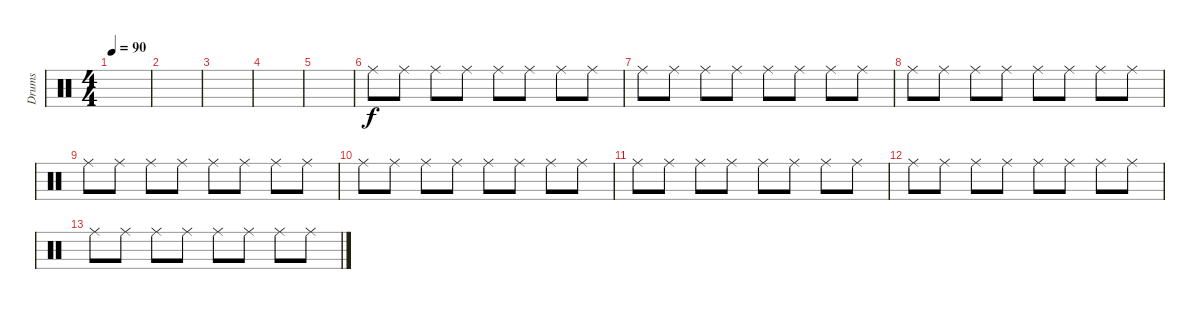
\track ("Drums" "Drums") {instrument percussion}
\staff {score}
\articulation defaults
\ts (4 4)
\tempo 90
\clef neutral
\ks c
|
|
|
|
|
"Ride (middle)".8 "Ride (middle)".8 "Ride (middle)".8 "Ride (middle)".8 "Ride (middle)".8 "Ride (middle)".8 "Ride (middle)".8 "Ride (middle)".8 |
"Ride (middle)".8 "Ride (middle)".8 "Ride (middle)".8 "Ride (middle)".8 "Ride (middle)".8 "Ride (middle)".8 "Ride (middle)".8 "Ride (middle)".8 |
"Ride (middle)".8 "Ride (middle)".8 "Ride (middle)".8 "Ride (middle)".8 "Ride (middle)".8 "Ride (middle)".8 "Ride (middle)".8 "Ride (middle)".8 |
"Ride (middle)".8 "Ride (middle)".8 "Ride (middle)".8 "Ride (middle)".8 "Ride (middle)".8 "Ride (middle)".8 "Ride (middle)".8 "Ride (middle)".8 |
"Ride (middle)".8 "Ride (middle)".8 "Ride (middle)".8 "Ride (middle)".8 "Ride (middle)".8 "Ride (middle)".8 "Ride (middle)".8 "Ride (middle)".8 |
"Ride (middle)".8 "Ride (middle)".8 "Ride (middle)".8 "Ride (middle)".8 "Ride (middle)".8 "Ride (middle)".8 "Ride (middle)".8 "Ride (middle)".8 |
"Ride (middle)".8 "Ride (middle)".8 "Ride (middle)".8 "Ride (middle)".8 "Ride (middle)".8 "Ride (middle)".8 "Ride (middle)".8 "Ride (middle)".8 |
"Ride (middle)".8 "Ride (middle)".8 "Ride (middle)".8 "Ride (middle)".8 "Ride (middle)".8 "Ride (middle)".8 "Ride (middle)".8 "Ride (middle)".8
